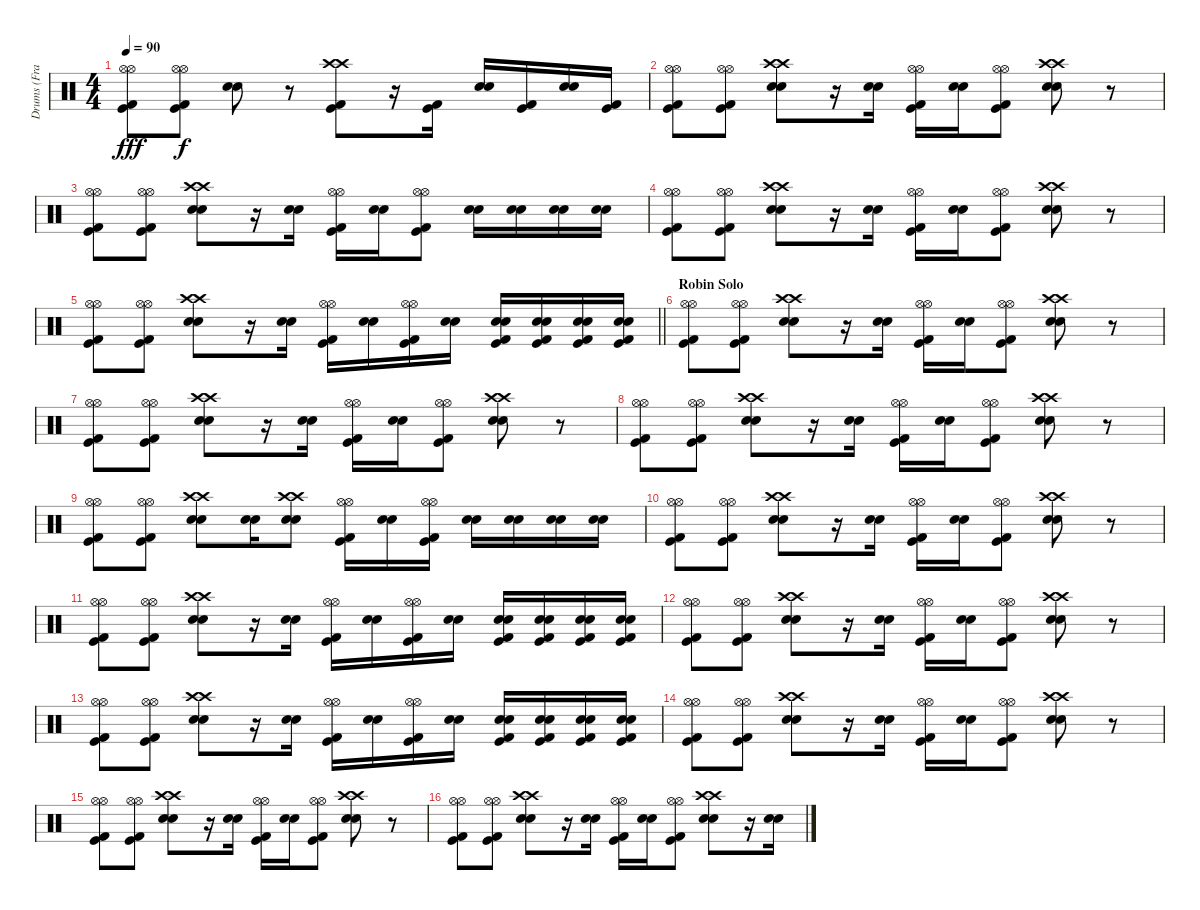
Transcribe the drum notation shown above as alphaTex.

\track ("Drums (Frank Ferrer)" "Drums (Fra") {instrument percussion}
\staff {score}
\articulation defaults
\ts (4 4)
\tempo 90
\clef neutral
\ks c
("Hi-Hat (open)" "Hi-Hat (open)" "Kick (hit)" "Kick (hit) 2").8{dy fff} ("Hi-Hat (open)" "Hi-Hat (open)" "Kick (hit)" "Kick (hit) 2").8{dy f} ("Snare (hit) 2" "Snare (hit) 2").8 r.8 ("Crash high (hit)" "Crash high (hit)" "Kick (hit)" "Kick (hit) 2").8 r.16 ("Kick (hit)" "Kick (hit) 2").16 ("Snare (hit) 2" "Snare (hit) 2").16 ("Kick (hit)" "Kick (hit) 2").16 ("Snare (hit) 2" "Snare (hit) 2").16 ("Kick (hit)" "Kick (hit) 2").16 |
("Hi-Hat (open)" "Hi-Hat (open)" "Kick (hit)" "Kick (hit) 2").8 ("Hi-Hat (open)" "Hi-Hat (open)" "Kick (hit)" "Kick (hit) 2").8 ("Crash high (hit)" "Crash high (hit)" "Snare (hit) 2" "Snare (hit) 2").8 r.16 ("Snare (hit) 2" "Snare (hit) 2").16 ("Hi-Hat (open)" "Hi-Hat (open)" "Kick (hit)" "Kick (hit) 2").16 ("Snare (hit) 2" "Snare (hit) 2").16 ("Hi-Hat (open)" "Hi-Hat (open)" "Kick (hit)" "Kick (hit) 2").8 ("Crash high (hit)" "Crash high (hit)" "Snare (hit) 2" "Snare (hit) 2").8 r.8 |
("Hi-Hat (open)" "Hi-Hat (open)" "Kick (hit)" "Kick (hit) 2").8 ("Hi-Hat (open)" "Hi-Hat (open)" "Kick (hit)" "Kick (hit) 2").8 ("Crash high (hit)" "Crash high (hit)" "Snare (hit) 2" "Snare (hit) 2").8 r.16 ("Snare (hit) 2" "Snare (hit) 2").16 ("Hi-Hat (open)" "Hi-Hat (open)" "Kick (hit)" "Kick (hit) 2").16 ("Snare (hit) 2" "Snare (hit) 2").16 ("Hi-Hat (open)" "Hi-Hat (open)" "Kick (hit)" "Kick (hit) 2").8 ("Snare (hit) 2" "Snare (hit) 2").16 ("Snare (hit) 2" "Snare (hit) 2").16 ("Snare (hit) 2" "Snare (hit) 2").16 ("Snare (hit) 2" "Snare (hit) 2").16 |
("Hi-Hat (open)" "Hi-Hat (open)" "Kick (hit)" "Kick (hit) 2").8 ("Hi-Hat (open)" "Hi-Hat (open)" "Kick (hit)" "Kick (hit) 2").8 ("Crash high (hit)" "Crash high (hit)" "Snare (hit) 2" "Snare (hit) 2").8 r.16 ("Snare (hit) 2" "Snare (hit) 2").16 ("Hi-Hat (open)" "Hi-Hat (open)" "Kick (hit)" "Kick (hit) 2").16 ("Snare (hit) 2" "Snare (hit) 2").16 ("Hi-Hat (open)" "Hi-Hat (open)" "Kick (hit)" "Kick (hit) 2").8 ("Crash high (hit)" "Crash high (hit)" "Snare (hit) 2" "Snare (hit) 2").8 r.8 |
\barLineRight lightlight
("Hi-Hat (open)" "Hi-Hat (open)" "Kick (hit)" "Kick (hit) 2").8 ("Hi-Hat (open)" "Hi-Hat (open)" "Kick (hit)" "Kick (hit) 2").8 ("Crash high (hit)" "Crash high (hit)" "Snare (hit) 2" "Snare (hit) 2").8 r.16 ("Snare (hit) 2" "Snare (hit) 2").16 ("Hi-Hat (open)" "Hi-Hat (open)" "Kick (hit)" "Kick (hit) 2").16 ("Snare (hit) 2" "Snare (hit) 2").16 ("Hi-Hat (open)" "Hi-Hat (open)" "Kick (hit)" "Kick (hit) 2").16 ("Snare (hit) 2" "Snare (hit) 2").16 ("Snare (hit) 2" "Snare (hit) 2" "Kick (hit)" "Kick (hit) 2").16 ("Snare (hit) 2" "Snare (hit) 2" "Kick (hit)" "Kick (hit) 2").16 ("Snare (hit) 2" "Snare (hit) 2" "Kick (hit)" "Kick (hit) 2").16 ("Snare (hit) 2" "Snare (hit) 2" "Kick (hit)" "Kick (hit) 2").16 |
\section ("" "Robin Solo")
("Hi-Hat (open)" "Hi-Hat (open)" "Kick (hit)" "Kick (hit) 2").8 ("Hi-Hat (open)" "Hi-Hat (open)" "Kick (hit)" "Kick (hit) 2").8 ("Crash high (hit)" "Crash high (hit)" "Snare (hit) 2" "Snare (hit) 2").8 r.16 ("Snare (hit) 2" "Snare (hit) 2").16 ("Hi-Hat (open)" "Hi-Hat (open)" "Kick (hit)" "Kick (hit) 2").16 ("Snare (hit) 2" "Snare (hit) 2").16 ("Hi-Hat (open)" "Hi-Hat (open)" "Kick (hit)" "Kick (hit) 2").8 ("Crash high (hit)" "Crash high (hit)" "Snare (hit) 2" "Snare (hit) 2").8 r.8 |
("Hi-Hat (open)" "Hi-Hat (open)" "Kick (hit)" "Kick (hit) 2").8 ("Hi-Hat (open)" "Hi-Hat (open)" "Kick (hit)" "Kick (hit) 2").8 ("Crash high (hit)" "Crash high (hit)" "Snare (hit) 2" "Snare (hit) 2").8 r.16 ("Snare (hit) 2" "Snare (hit) 2").16 ("Hi-Hat (open)" "Hi-Hat (open)" "Kick (hit)" "Kick (hit) 2").16 ("Snare (hit) 2" "Snare (hit) 2").16 ("Hi-Hat (open)" "Hi-Hat (open)" "Kick (hit)" "Kick (hit) 2").8 ("Crash high (hit)" "Crash high (hit)" "Snare (hit) 2" "Snare (hit) 2").8 r.8 |
("Hi-Hat (open)" "Hi-Hat (open)" "Kick (hit)" "Kick (hit) 2").8 ("Hi-Hat (open)" "Hi-Hat (open)" "Kick (hit)" "Kick (hit) 2").8 ("Crash high (hit)" "Crash high (hit)" "Snare (hit) 2" "Snare (hit) 2").8 r.16 ("Snare (hit) 2" "Snare (hit) 2").16 ("Hi-Hat (open)" "Hi-Hat (open)" "Kick (hit)" "Kick (hit) 2").16 ("Snare (hit) 2" "Snare (hit) 2").16 ("Hi-Hat (open)" "Hi-Hat (open)" "Kick (hit)" "Kick (hit) 2").8 ("Crash high (hit)" "Crash high (hit)" "Snare (hit) 2" "Snare (hit) 2").8 r.8 |
("Hi-Hat (open)" "Hi-Hat (open)" "Kick (hit)" "Kick (hit) 2").8 ("Hi-Hat (open)" "Hi-Hat (open)" "Kick (hit)" "Kick (hit) 2").8 ("Crash high (hit)" "Crash high (hit)" "Snare (hit) 2" "Snare (hit) 2").8 ("Snare (hit) 2" "Snare (hit) 2").16 ("Crash high (hit)" "Crash high (hit)" "Snare (hit) 2" "Snare (hit) 2").8 ("Hi-Hat (open)" "Hi-Hat (open)" "Kick (hit)" "Kick (hit) 2").16 ("Snare (hit) 2" "Snare (hit) 2").16 ("Hi-Hat (open)" "Hi-Hat (open)" "Kick (hit)" "Kick (hit) 2").16 ("Snare (hit) 2" "Snare (hit) 2").16 ("Snare (hit) 2" "Snare (hit) 2").16 ("Snare (hit) 2" "Snare (hit) 2").16 ("Snare (hit) 2" "Snare (hit) 2").16 |
("Hi-Hat (open)" "Hi-Hat (open)" "Kick (hit)" "Kick (hit) 2").8 ("Hi-Hat (open)" "Hi-Hat (open)" "Kick (hit)" "Kick (hit) 2").8 ("Crash high (hit)" "Crash high (hit)" "Snare (hit) 2" "Snare (hit) 2").8 r.16 ("Snare (hit) 2" "Snare (hit) 2").16 ("Hi-Hat (open)" "Hi-Hat (open)" "Kick (hit)" "Kick (hit) 2").16 ("Snare (hit) 2" "Snare (hit) 2").16 ("Hi-Hat (open)" "Hi-Hat (open)" "Kick (hit)" "Kick (hit) 2").8 ("Crash high (hit)" "Crash high (hit)" "Snare (hit) 2" "Snare (hit) 2").8 r.8 |
("Hi-Hat (open)" "Hi-Hat (open)" "Kick (hit)" "Kick (hit) 2").8 ("Hi-Hat (open)" "Hi-Hat (open)" "Kick (hit)" "Kick (hit) 2").8 ("Crash high (hit)" "Crash high (hit)" "Snare (hit) 2" "Snare (hit) 2").8 r.16 ("Snare (hit) 2" "Snare (hit) 2").16 ("Hi-Hat (open)" "Hi-Hat (open)" "Kick (hit)" "Kick (hit) 2").16 ("Snare (hit) 2" "Snare (hit) 2").16 ("Hi-Hat (open)" "Hi-Hat (open)" "Kick (hit)" "Kick (hit) 2").16 ("Snare (hit) 2" "Snare (hit) 2").16 ("Snare (hit) 2" "Snare (hit) 2" "Kick (hit)" "Kick (hit) 2").16 ("Snare (hit) 2" "Snare (hit) 2" "Kick (hit)" "Kick (hit) 2").16 ("Snare (hit) 2" "Snare (hit) 2" "Kick (hit)" "Kick (hit) 2").16 ("Snare (hit) 2" "Snare (hit) 2" "Kick (hit)" "Kick (hit) 2").16 |
("Hi-Hat (open)" "Hi-Hat (open)" "Kick (hit)" "Kick (hit) 2").8 ("Hi-Hat (open)" "Hi-Hat (open)" "Kick (hit)" "Kick (hit) 2").8 ("Crash high (hit)" "Crash high (hit)" "Snare (hit) 2" "Snare (hit) 2").8 r.16 ("Snare (hit) 2" "Snare (hit) 2").16 ("Hi-Hat (open)" "Hi-Hat (open)" "Kick (hit)" "Kick (hit) 2").16 ("Snare (hit) 2" "Snare (hit) 2").16 ("Hi-Hat (open)" "Hi-Hat (open)" "Kick (hit)" "Kick (hit) 2").8 ("Crash high (hit)" "Crash high (hit)" "Snare (hit) 2" "Snare (hit) 2").8 r.8 |
("Hi-Hat (open)" "Hi-Hat (open)" "Kick (hit)" "Kick (hit) 2").8 ("Hi-Hat (open)" "Hi-Hat (open)" "Kick (hit)" "Kick (hit) 2").8 ("Crash high (hit)" "Crash high (hit)" "Snare (hit) 2" "Snare (hit) 2").8 r.16 ("Snare (hit) 2" "Snare (hit) 2").16 ("Hi-Hat (open)" "Hi-Hat (open)" "Kick (hit)" "Kick (hit) 2").16 ("Snare (hit) 2" "Snare (hit) 2").16 ("Hi-Hat (open)" "Hi-Hat (open)" "Kick (hit)" "Kick (hit) 2").16 ("Snare (hit) 2" "Snare (hit) 2").16 ("Snare (hit) 2" "Snare (hit) 2" "Kick (hit)" "Kick (hit) 2").16 ("Snare (hit) 2" "Snare (hit) 2" "Kick (hit)" "Kick (hit) 2").16 ("Snare (hit) 2" "Snare (hit) 2" "Kick (hit)" "Kick (hit) 2").16 ("Snare (hit) 2" "Snare (hit) 2" "Kick (hit)" "Kick (hit) 2").16 |
("Hi-Hat (open)" "Hi-Hat (open)" "Kick (hit)" "Kick (hit) 2").8 ("Hi-Hat (open)" "Hi-Hat (open)" "Kick (hit)" "Kick (hit) 2").8 ("Crash high (hit)" "Crash high (hit)" "Snare (hit) 2" "Snare (hit) 2").8 r.16 ("Snare (hit) 2" "Snare (hit) 2").16 ("Hi-Hat (open)" "Hi-Hat (open)" "Kick (hit)" "Kick (hit) 2").16 ("Snare (hit) 2" "Snare (hit) 2").16 ("Hi-Hat (open)" "Hi-Hat (open)" "Kick (hit)" "Kick (hit) 2").8 ("Crash high (hit)" "Crash high (hit)" "Snare (hit) 2" "Snare (hit) 2").8 r.8 |
("Hi-Hat (open)" "Hi-Hat (open)" "Kick (hit)" "Kick (hit) 2").8 ("Hi-Hat (open)" "Hi-Hat (open)" "Kick (hit)" "Kick (hit) 2").8 ("Crash high (hit)" "Crash high (hit)" "Snare (hit) 2" "Snare (hit) 2").8 r.16 ("Snare (hit) 2" "Snare (hit) 2").16 ("Hi-Hat (open)" "Hi-Hat (open)" "Kick (hit)" "Kick (hit) 2").16 ("Snare (hit) 2" "Snare (hit) 2").16 ("Hi-Hat (open)" "Hi-Hat (open)" "Kick (hit)" "Kick (hit) 2").8 ("Crash high (hit)" "Crash high (hit)" "Snare (hit) 2" "Snare (hit) 2").8 r.8 |
("Hi-Hat (open)" "Hi-Hat (open)" "Kick (hit)" "Kick (hit) 2").8 ("Hi-Hat (open)" "Hi-Hat (open)" "Kick (hit)" "Kick (hit) 2").8 ("Crash high (hit)" "Crash high (hit)" "Snare (hit) 2" "Snare (hit) 2").8 r.16 ("Snare (hit) 2" "Snare (hit) 2").16 ("Hi-Hat (open)" "Hi-Hat (open)" "Kick (hit)" "Kick (hit) 2").16 ("Snare (hit) 2" "Snare (hit) 2").16 ("Hi-Hat (open)" "Hi-Hat (open)" "Kick (hit)" "Kick (hit) 2").8 ("Crash high (hit)" "Crash high (hit)" "Snare (hit) 2" "Snare (hit) 2").8 r.16 ("Snare (hit) 2" "Snare (hit) 2").16
